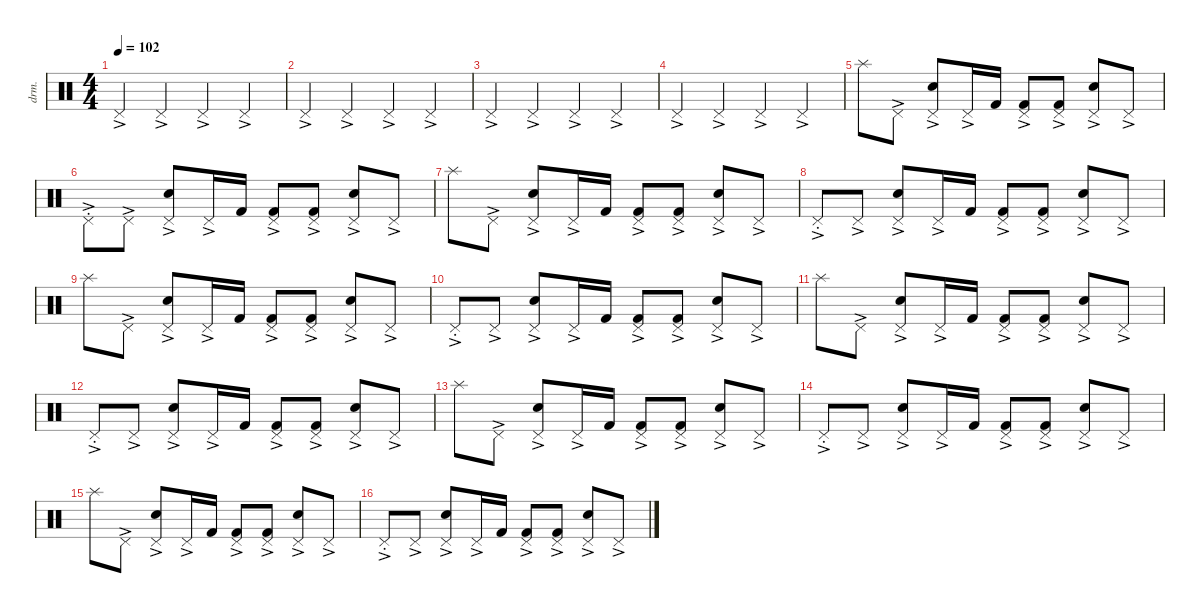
\defaultSystemsLayout 4
\hideDynamics
\bracketExtendMode nobrackets
\multiBarRest
\otherSystemsTrackNameOrientation horizontal
\track ("Drumkit" "drm.") {instrument percussion}
\staff {score}
\articulation defaults
\ts (4 4)
\tempo 102
\clef neutral
\ks c "Pedal Hi-Hat (hit)"{ac}.4{dy p beam Up} "Pedal Hi-Hat (hit)"{ac}.4{beam Up} "Pedal Hi-Hat (hit)"{ac}.4{beam Up} "Pedal Hi-Hat (hit)"{ac}.4{beam Up}
|
"Pedal Hi-Hat (hit)"{ac}.4{beam Up} "Pedal Hi-Hat (hit)"{ac}.4{beam Up} "Pedal Hi-Hat (hit)"{ac}.4{beam Up} "Pedal Hi-Hat (hit)"{ac}.4{beam Up} |
"Pedal Hi-Hat (hit)"{ac}.4{beam Up} "Pedal Hi-Hat (hit)"{ac}.4{beam Up} "Pedal Hi-Hat (hit)"{ac}.4{beam Up} "Pedal Hi-Hat (hit)"{ac}.4{beam Up} |
"Pedal Hi-Hat (hit)"{ac}.4{beam Up} "Pedal Hi-Hat (hit)"{ac}.4{beam Up} "Pedal Hi-Hat (hit)"{ac}.4{beam Up} "Pedal Hi-Hat (hit)"{ac}.4{beam Up} |
"Splash (hit)".8{beam Down} "Pedal Hi-Hat (hit)"{ac}.8{beam Down} ("Snare (hit) 2" "Pedal Hi-Hat (hit)"{ac}).8{beam Up} "Pedal Hi-Hat (hit)"{ac}.16{beam Up} "Kick (hit) 2".16{beam Up} ("Kick (hit) 2" "Pedal Hi-Hat (hit)"{ac}).8{beam Up} ("Pedal Hi-Hat (hit)"{ac} "Kick (hit) 2").8{beam Up} ("Pedal Hi-Hat (hit)"{ac} "Snare (hit) 2").8{beam Up} "Pedal Hi-Hat (hit)"{ac}.8{beam Up} |
"Pedal Hi-Hat (hit)"{ac st}.8{beam Down} "Pedal Hi-Hat (hit)"{ac}.8{beam Down} ("Snare (hit) 2" "Pedal Hi-Hat (hit)"{ac}).8{beam Up} "Pedal Hi-Hat (hit)"{ac}.16{beam Up} "Kick (hit) 2".16{beam Up} ("Kick (hit) 2" "Pedal Hi-Hat (hit)"{ac}).8{beam Up} ("Pedal Hi-Hat (hit)"{ac} "Kick (hit) 2").8{beam Up} ("Pedal Hi-Hat (hit)"{ac} "Snare (hit) 2").8{beam Up} "Pedal Hi-Hat (hit)"{ac}.8{beam Up} |
"Splash (hit)".8{beam Down} "Pedal Hi-Hat (hit)"{ac}.8{beam Down} ("Snare (hit) 2" "Pedal Hi-Hat (hit)"{ac}).8{beam Up} "Pedal Hi-Hat (hit)"{ac}.16{beam Up} "Kick (hit) 2".16{beam Up} ("Kick (hit) 2" "Pedal Hi-Hat (hit)"{ac}).8{beam Up} ("Pedal Hi-Hat (hit)"{ac} "Kick (hit) 2").8{beam Up} ("Pedal Hi-Hat (hit)"{ac} "Snare (hit) 2").8{beam Up} "Pedal Hi-Hat (hit)"{ac}.8{beam Up} |
"Pedal Hi-Hat (hit)"{ac st}.8{beam Up} "Pedal Hi-Hat (hit)"{ac}.8{beam Up} ("Snare (hit) 2" "Pedal Hi-Hat (hit)"{ac}).8{beam Up} "Pedal Hi-Hat (hit)"{ac}.16{beam Up} "Kick (hit) 2".16{beam Up} ("Kick (hit) 2" "Pedal Hi-Hat (hit)"{ac}).8{beam Up} ("Pedal Hi-Hat (hit)"{ac} "Kick (hit) 2").8{beam Up} ("Pedal Hi-Hat (hit)"{ac} "Snare (hit) 2").8{beam Up} "Pedal Hi-Hat (hit)"{ac}.8{beam Up} |
"Splash (hit)".8{beam Down} "Pedal Hi-Hat (hit)"{ac}.8{beam Down} ("Snare (hit) 2" "Pedal Hi-Hat (hit)"{ac}).8{beam Up} "Pedal Hi-Hat (hit)"{ac}.16{beam Up} "Kick (hit) 2".16{beam Up} ("Kick (hit) 2" "Pedal Hi-Hat (hit)"{ac}).8{beam Up} ("Pedal Hi-Hat (hit)"{ac} "Kick (hit) 2").8{beam Up} ("Pedal Hi-Hat (hit)"{ac} "Snare (hit) 2").8{beam Up} "Pedal Hi-Hat (hit)"{ac}.8{beam Up} |
"Pedal Hi-Hat (hit)"{ac st}.8{beam Up} "Pedal Hi-Hat (hit)"{ac}.8{beam Up} ("Snare (hit) 2" "Pedal Hi-Hat (hit)"{ac}).8{beam Up} "Pedal Hi-Hat (hit)"{ac}.16{beam Up} "Kick (hit) 2".16{beam Up} ("Kick (hit) 2" "Pedal Hi-Hat (hit)"{ac}).8{beam Up} ("Pedal Hi-Hat (hit)"{ac} "Kick (hit) 2").8{beam Up} ("Pedal Hi-Hat (hit)"{ac} "Snare (hit) 2").8{beam Up} "Pedal Hi-Hat (hit)"{ac}.8{beam Up} |
"Splash (hit)".8{beam Down} "Pedal Hi-Hat (hit)"{ac}.8{beam Down} ("Snare (hit) 2" "Pedal Hi-Hat (hit)"{ac}).8{beam Up} "Pedal Hi-Hat (hit)"{ac}.16{beam Up} "Kick (hit) 2".16{beam Up} ("Kick (hit) 2" "Pedal Hi-Hat (hit)"{ac}).8{beam Up} ("Pedal Hi-Hat (hit)"{ac} "Kick (hit) 2").8{beam Up} ("Pedal Hi-Hat (hit)"{ac} "Snare (hit) 2").8{beam Up} "Pedal Hi-Hat (hit)"{ac}.8{beam Up} |
"Pedal Hi-Hat (hit)"{ac st}.8{beam Up} "Pedal Hi-Hat (hit)"{ac}.8{beam Up} ("Snare (hit) 2" "Pedal Hi-Hat (hit)"{ac}).8{beam Up} "Pedal Hi-Hat (hit)"{ac}.16{beam Up} "Kick (hit) 2".16{beam Up} ("Kick (hit) 2" "Pedal Hi-Hat (hit)"{ac}).8{beam Up} ("Pedal Hi-Hat (hit)"{ac} "Kick (hit) 2").8{beam Up} ("Pedal Hi-Hat (hit)"{ac} "Snare (hit) 2").8{beam Up} "Pedal Hi-Hat (hit)"{ac}.8{beam Up} |
"Splash (hit)".8{beam Down} "Pedal Hi-Hat (hit)"{ac}.8{beam Down} ("Snare (hit) 2" "Pedal Hi-Hat (hit)"{ac}).8{beam Up} "Pedal Hi-Hat (hit)"{ac}.16{beam Up} "Kick (hit) 2".16{beam Up} ("Kick (hit) 2" "Pedal Hi-Hat (hit)"{ac}).8{beam Up} ("Pedal Hi-Hat (hit)"{ac} "Kick (hit) 2").8{beam Up} ("Pedal Hi-Hat (hit)"{ac} "Snare (hit) 2").8{beam Up} "Pedal Hi-Hat (hit)"{ac}.8{beam Up} |
"Pedal Hi-Hat (hit)"{ac st}.8{beam Up} "Pedal Hi-Hat (hit)"{ac}.8{beam Up} ("Snare (hit) 2" "Pedal Hi-Hat (hit)"{ac}).8{beam Up} "Pedal Hi-Hat (hit)"{ac}.16{beam Up} "Kick (hit) 2".16{beam Up} ("Kick (hit) 2" "Pedal Hi-Hat (hit)"{ac}).8{beam Up} ("Pedal Hi-Hat (hit)"{ac} "Kick (hit) 2").8{beam Up} ("Pedal Hi-Hat (hit)"{ac} "Snare (hit) 2").8{beam Up} "Pedal Hi-Hat (hit)"{ac}.8{beam Up} |
"Splash (hit)".8{beam Down} "Pedal Hi-Hat (hit)"{ac}.8{beam Down} ("Snare (hit) 2" "Pedal Hi-Hat (hit)"{ac}).8{beam Up} "Pedal Hi-Hat (hit)"{ac}.16{beam Up} "Kick (hit) 2".16{beam Up} ("Kick (hit) 2" "Pedal Hi-Hat (hit)"{ac}).8{beam Up} ("Pedal Hi-Hat (hit)"{ac} "Kick (hit) 2").8{beam Up} ("Pedal Hi-Hat (hit)"{ac} "Snare (hit) 2").8{beam Up} "Pedal Hi-Hat (hit)"{ac}.8{beam Up} |
"Pedal Hi-Hat (hit)"{ac st}.8{beam Up} "Pedal Hi-Hat (hit)"{ac}.8{beam Up} ("Snare (hit) 2" "Pedal Hi-Hat (hit)"{ac}).8{beam Up} "Pedal Hi-Hat (hit)"{ac}.16{beam Up} "Kick (hit) 2".16{beam Up} ("Kick (hit) 2" "Pedal Hi-Hat (hit)"{ac}).8{beam Up} ("Pedal Hi-Hat (hit)"{ac} "Kick (hit) 2").8{beam Up} ("Pedal Hi-Hat (hit)"{ac} "Snare (hit) 2").8{beam Up} "Pedal Hi-Hat (hit)"{ac}.8{beam Up}
